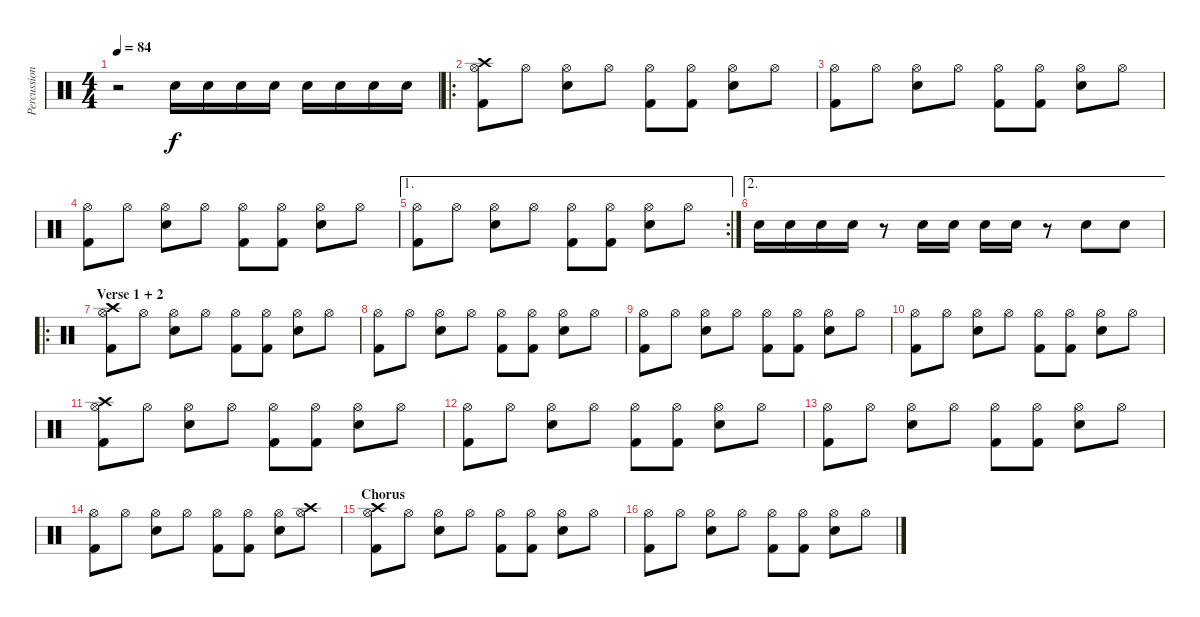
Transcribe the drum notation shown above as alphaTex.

\track ("Percussion" "Percussion") {instrument percussion}
\staff {score}
\articulation defaults
\ts (4 4)
\tempo 84
\clef neutral
\ks c
r.2{dy f} "Electric Snare (hit)".16 "Electric Snare (hit)".16 "Electric Snare (hit)".16 "Electric Snare (hit)".16 "Electric Snare (hit)".16 "Electric Snare (hit)".16 "Electric Snare (hit)".16 "Electric Snare (hit)".16 |
\ro
("Crash high (hit)" "Kick (hit) 2" "Hi-Hat (open)").8 "Hi-Hat (open)".8 ("Electric Snare (hit)" "Hi-Hat (open)").8 "Hi-Hat (open)".8 ("Kick (hit) 2" "Hi-Hat (open)").8 ("Kick (hit) 2" "Hi-Hat (open)").8 ("Electric Snare (hit)" "Hi-Hat (open)").8 "Hi-Hat (open)".8 |
("Kick (hit) 2" "Hi-Hat (open)").8 "Hi-Hat (open)".8 ("Electric Snare (hit)" "Hi-Hat (open)").8 "Hi-Hat (open)".8 ("Kick (hit) 2" "Hi-Hat (open)").8 ("Kick (hit) 2" "Hi-Hat (open)").8 ("Electric Snare (hit)" "Hi-Hat (open)").8 "Hi-Hat (open)".8 |
("Kick (hit) 2" "Hi-Hat (open)").8 "Hi-Hat (open)".8 ("Electric Snare (hit)" "Hi-Hat (open)").8 "Hi-Hat (open)".8 ("Kick (hit) 2" "Hi-Hat (open)").8 ("Kick (hit) 2" "Hi-Hat (open)").8 ("Electric Snare (hit)" "Hi-Hat (open)").8 "Hi-Hat (open)".8 |
\ae 1
\rc 2
("Kick (hit) 2" "Hi-Hat (open)").8 "Hi-Hat (open)".8 ("Electric Snare (hit)" "Hi-Hat (open)").8 "Hi-Hat (open)".8 ("Kick (hit) 2" "Hi-Hat (open)").8 ("Kick (hit) 2" "Hi-Hat (open)").8 ("Electric Snare (hit)" "Hi-Hat (open)").8 "Hi-Hat (open)".8 |
\ae 2 "Electric Snare (hit)".16 "Electric Snare (hit)".16 "Electric Snare (hit)".16 "Electric Snare (hit)".16
r.8 "Electric Snare (hit)".16 "Electric Snare (hit)".16 "Electric Snare (hit)".16 "Electric Snare (hit)".16 r.8 "Electric Snare (hit)".8 "Electric Snare (hit)".8 |
\ro
\section ("" "Verse 1 + 2")
("Crash high (hit)" "Kick (hit) 2" "Hi-Hat (open)").8 "Hi-Hat (open)".8 ("Electric Snare (hit)" "Hi-Hat (open)").8 "Hi-Hat (open)".8 ("Kick (hit) 2" "Hi-Hat (open)").8 ("Kick (hit) 2" "Hi-Hat (open)").8 ("Electric Snare (hit)" "Hi-Hat (open)").8 "Hi-Hat (open)".8 |
("Kick (hit) 2" "Hi-Hat (open)").8 "Hi-Hat (open)".8 ("Electric Snare (hit)" "Hi-Hat (open)").8 "Hi-Hat (open)".8 ("Kick (hit) 2" "Hi-Hat (open)").8 ("Kick (hit) 2" "Hi-Hat (open)").8 ("Electric Snare (hit)" "Hi-Hat (open)").8 "Hi-Hat (open)".8 |
("Kick (hit) 2" "Hi-Hat (open)").8 "Hi-Hat (open)".8 ("Electric Snare (hit)" "Hi-Hat (open)").8 "Hi-Hat (open)".8 ("Kick (hit) 2" "Hi-Hat (open)").8 ("Kick (hit) 2" "Hi-Hat (open)").8 ("Electric Snare (hit)" "Hi-Hat (open)").8 "Hi-Hat (open)".8 |
("Kick (hit) 2" "Hi-Hat (open)").8 "Hi-Hat (open)".8 ("Electric Snare (hit)" "Hi-Hat (open)").8 "Hi-Hat (open)".8 ("Kick (hit) 2" "Hi-Hat (open)").8 ("Kick (hit) 2" "Hi-Hat (open)").8 ("Electric Snare (hit)" "Hi-Hat (open)").8 "Hi-Hat (open)".8 |
("Crash high (hit)" "Kick (hit) 2" "Hi-Hat (open)").8 "Hi-Hat (open)".8 ("Electric Snare (hit)" "Hi-Hat (open)").8 "Hi-Hat (open)".8 ("Kick (hit) 2" "Hi-Hat (open)").8 ("Kick (hit) 2" "Hi-Hat (open)").8 ("Electric Snare (hit)" "Hi-Hat (open)").8 "Hi-Hat (open)".8 |
("Kick (hit) 2" "Hi-Hat (open)").8 "Hi-Hat (open)".8 ("Electric Snare (hit)" "Hi-Hat (open)").8 "Hi-Hat (open)".8 ("Kick (hit) 2" "Hi-Hat (open)").8 ("Kick (hit) 2" "Hi-Hat (open)").8 ("Electric Snare (hit)" "Hi-Hat (open)").8 "Hi-Hat (open)".8 |
("Kick (hit) 2" "Hi-Hat (open)").8 "Hi-Hat (open)".8 ("Electric Snare (hit)" "Hi-Hat (open)").8 "Hi-Hat (open)".8 ("Kick (hit) 2" "Hi-Hat (open)").8 ("Kick (hit) 2" "Hi-Hat (open)").8 ("Electric Snare (hit)" "Hi-Hat (open)").8 "Hi-Hat (open)".8 |
("Kick (hit) 2" "Hi-Hat (open)").8 "Hi-Hat (open)".8 ("Electric Snare (hit)" "Hi-Hat (open)").8 "Hi-Hat (open)".8 ("Kick (hit) 2" "Hi-Hat (open)").8 ("Kick (hit) 2" "Hi-Hat (open)").8 ("Electric Snare (hit)" "Hi-Hat (open)").8 ("Crash high (hit)" "Hi-Hat (open)").8 |
\section ("" "Chorus")
("Crash high (hit)" "Kick (hit) 2" "Hi-Hat (open)").8 "Hi-Hat (open)".8 ("Electric Snare (hit)" "Hi-Hat (open)").8 "Hi-Hat (open)".8 ("Kick (hit) 2" "Hi-Hat (open)").8 ("Kick (hit) 2" "Hi-Hat (open)").8 ("Electric Snare (hit)" "Hi-Hat (open)").8 "Hi-Hat (open)".8 |
("Kick (hit) 2" "Hi-Hat (open)").8 "Hi-Hat (open)".8 ("Electric Snare (hit)" "Hi-Hat (open)").8 "Hi-Hat (open)".8 ("Kick (hit) 2" "Hi-Hat (open)").8 ("Kick (hit) 2" "Hi-Hat (open)").8 ("Electric Snare (hit)" "Hi-Hat (open)").8 "Hi-Hat (open)".8
